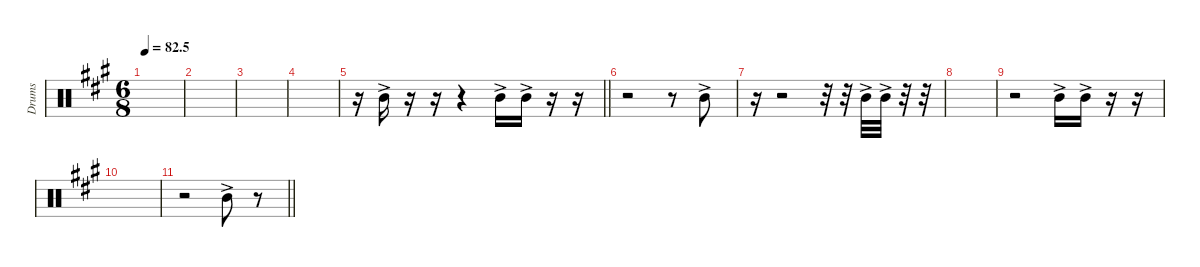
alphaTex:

\defaultSystemsLayout 4
\hideDynamics
\bracketExtendMode nobrackets
\otherSystemsTrackNameOrientation horizontal
\track ("Tom 02" "Drums") {instrument percussion}
\staff {score}
\articulation defaults
\ts (6 8)
\tempo
82.5
\accidentals auto
\clef neutral
\ottava regular
\simile none
\scale
0.333333
\ks a
|
\scale
0.333333 |
\scale
0.333333 |
\scale
0.333333 |
\scale
0.333333
\barLineRight lightlight
r.16 "Mid Tom (hit)"{ac acc forcenatural}.16 r.16 r.16 r.4 "Mid Tom (hit)"{ac acc forcenatural}.16 "Mid Tom (hit)"{ac acc forcenatural}.16 r.16 r.16 |
\scale
0.333333 r.2 r.8 "Mid Tom (hit)"{ac acc forcenatural}.8 |
\scale
0.333333 r.16 r.2 r.32 r.32 "Mid Tom (hit)"{ac acc forcenatural}.32 "Mid Tom (hit)"{ac acc forcenatural}.32 r.32 r.32 |
\scale
0.333333 |
\scale
0.333333 r.2 "Mid Tom (hit)"{ac acc forcenatural}.16 "Mid Tom (hit)"{ac acc forcenatural}.16 r.16 r.16 |
\scale
0.333333 |
\scale
0.333333
\barLineRight lightlight
r.2 "Mid Tom (hit)"{ac acc forcenatural}.8 r.8 |
\scale
0.333333 |
\scale
0.333333 |
\scale
0.333333 |
\scale
0.333333 |
\scale
0.333333
